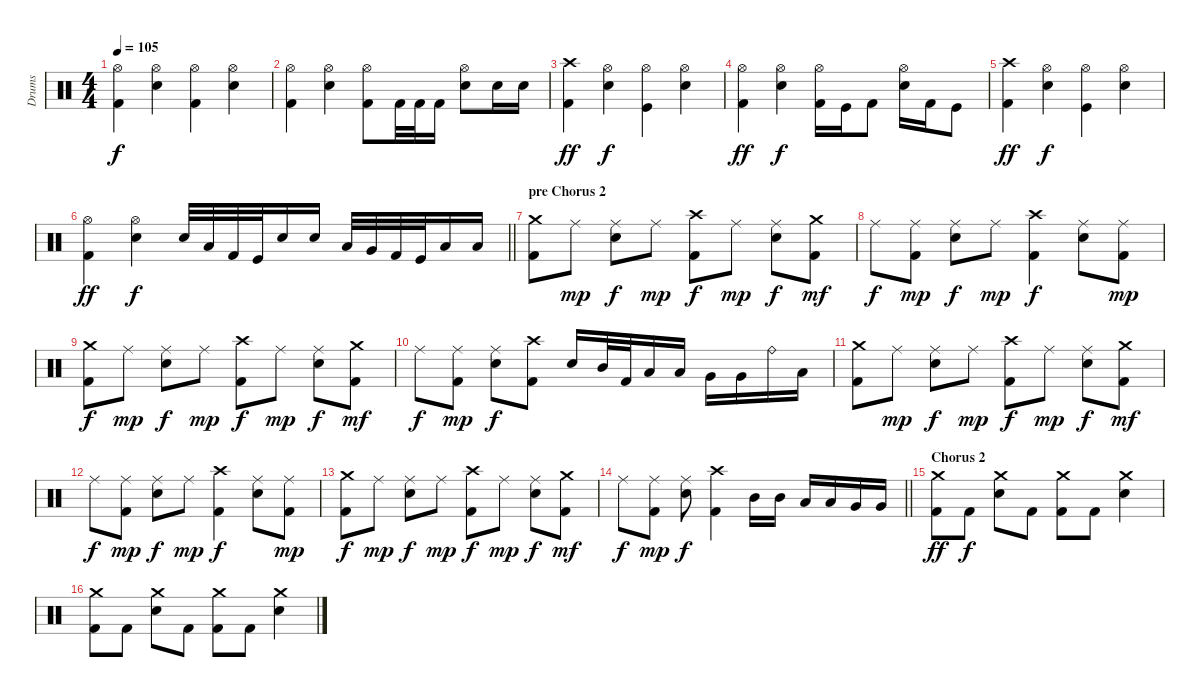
\track ("Drums" "Drums") {instrument percussion}
\staff {score}
\articulation defaults
\ts (4 4)
\tempo 105
\clef neutral
\ks c
("Hi-Hat (open)" "Kick (hit) 2").4{dy f} ("Hi-Hat (open)" "Snare (hit) 2").4 ("Hi-Hat (open)" "Kick (hit) 2").4 ("Hi-Hat (open)" "Snare (hit) 2").4 |
("Hi-Hat (open)" "Kick (hit) 2").4 ("Hi-Hat (open)" "Snare (hit) 2").4 ("Hi-Hat (open)" "Kick (hit) 2").8 "Kick (hit) 2".32 "Kick (hit) 2".32 "Kick (hit) 2".16 ("Hi-Hat (open)" "Snare (hit) 2").8 "Snare (hit) 2".16 "Snare (hit) 2".16 |
("Crash high (hit)" "Kick (hit) 2").4{dy ff} ("Hi-Hat (open)" "Snare (hit) 2").4{dy f} ("Hi-Hat (open)" "Kick (hit)").4 ("Hi-Hat (open)" "Snare (hit) 2").4 |
("Hi-Hat (open)" "Kick (hit) 2").4{dy ff} ("Hi-Hat (open)" "Snare (hit) 2").4{dy f} ("Hi-Hat (open)" "Kick (hit) 2").16 "Kick (hit)".16 "Kick (hit) 2".8 ("Hi-Hat (open)" "Snare (hit) 2").16 "Kick (hit) 2".16 "Kick (hit)".8 |
("Crash high (hit)" "Kick (hit) 2").4{dy ff} ("Hi-Hat (open)" "Snare (hit) 2").4{dy f} ("Hi-Hat (open)" "Kick (hit)").4 ("Hi-Hat (open)" "Snare (hit) 2").4 |
\barLineRight lightlight
("Hi-Hat (open)" "Kick (hit) 2").4{dy ff} ("Hi-Hat (open)" "Snare (hit) 2").4{dy f} "Snare (hit) 2".32 "Low Tom (hit)".32 "Kick (hit) 2".32 "Kick (hit)".32 "Snare (hit) 2".16 "Snare (hit) 2".16 "Low Tom (hit)".32 "Very Low Tom (hit)".32 "Kick (hit) 2".32 "Kick (hit)".32 "Low Floor Tom (hit)".16 "Low Floor Tom (hit)".16 |
\section ("" "pre Chorus 2")
("Crash medium (hit)" "Kick (hit) 2").8 "Ride (middle)".8{dy mp} ("Ride (middle)" "Snare (hit) 2").8{dy f} "Ride (middle)".8{dy mp} ("Crash high (hit)" "Kick (hit) 2").8{dy f} "Ride (middle)".8{dy mp} ("Ride (middle)" "Snare (hit) 2").8{dy f} ("Crash medium (hit)" "Kick (hit) 2").8{dy mf} |
"Ride (middle)".8{dy f} ("Ride (middle)" "Kick (hit) 2").8{dy mp} ("Ride (middle)" "Snare (hit) 2").8{dy f} "Ride (middle)".8{dy mp} ("Crash high (hit)" "Kick (hit) 2").4{dy f} ("Ride (middle)" "Snare (hit) 2").8 ("Ride (middle)" "Kick (hit) 2").8{dy mp} |
("Crash medium (hit)" "Kick (hit) 2").8{dy f} "Ride (middle)".8{dy mp} ("Ride (middle)" "Snare (hit) 2").8{dy f} "Ride (middle)".8{dy mp} ("Crash high (hit)" "Kick (hit) 2").8{dy f} "Ride (middle)".8{dy mp} ("Ride (middle)" "Snare (hit) 2").8{dy f} ("Crash medium (hit)" "Kick (hit) 2").8{dy mf} |
"Ride (middle)".8{dy f} ("Ride (middle)" "Kick (hit) 2").8{dy mp} ("Ride (middle)" "Snare (hit) 2").8{dy f} ("Crash high (hit)" "Kick (hit) 2").8 "Snare (hit) 2".16 "Mid Tom (hit)".32 "Kick (hit) 2".32 "Low Tom (hit)".16 "Low Tom (hit)".16 "Very Low Tom (hit)".16 "Very Low Tom (hit)".16 "Ride (bell)".16 "Low Floor Tom (hit)".16 |
("Crash medium (hit)" "Kick (hit) 2").8 "Ride (middle)".8{dy mp} ("Ride (middle)" "Snare (hit) 2").8{dy f} "Ride (middle)".8{dy mp} ("Crash high (hit)" "Kick (hit) 2").8{dy f} "Ride (middle)".8{dy mp} ("Ride (middle)" "Snare (hit) 2").8{dy f} ("Crash medium (hit)" "Kick (hit) 2").8{dy mf} |
"Ride (middle)".8{dy f} ("Ride (middle)" "Kick (hit) 2").8{dy mp} ("Ride (middle)" "Snare (hit) 2").8{dy f} "Ride (middle)".8{dy mp} ("Crash high (hit)" "Kick (hit) 2").4{dy f} ("Ride (middle)" "Snare (hit) 2").8 ("Ride (middle)" "Kick (hit) 2").8{dy mp} |
("Crash medium (hit)" "Kick (hit) 2").8{dy f} "Ride (middle)".8{dy mp} ("Ride (middle)" "Snare (hit) 2").8{dy f} "Ride (middle)".8{dy mp} ("Crash high (hit)" "Kick (hit) 2").8{dy f} "Ride (middle)".8{dy mp} ("Ride (middle)" "Snare (hit) 2").8{dy f} ("Crash medium (hit)" "Kick (hit) 2").8{dy mf} |
\barLineRight lightlight "Ride (middle)".8{dy f}
("Ride (middle)" "Kick (hit) 2").8{dy mp} ("Ride (middle)" "Snare (hit) 2").8{dy f} ("Crash high (hit)" "Kick (hit) 2").4 "Mid Tom (hit)".16 "Mid Tom (hit)".16 "Low Tom (hit)".16 "Low Tom (hit)".16 "Very Low Tom (hit)".16 "Very Low Tom (hit)".16 |
\section ("" "Chorus 2")
("Crash medium (hit)" "Kick (hit) 2").8{dy ff} "Kick (hit) 2".8{dy f} ("Crash medium (hit)" "Snare (hit) 2").8 "Kick (hit) 2".8 ("Crash medium (hit)" "Kick (hit) 2").8 "Kick (hit) 2".8 ("Crash medium (hit)" "Snare (hit) 2").4 |
("Crash medium (hit)" "Kick (hit) 2").8 "Kick (hit) 2".8 ("Crash medium (hit)" "Snare (hit) 2").8 "Kick (hit) 2".8 ("Crash medium (hit)" "Kick (hit) 2").8 "Kick (hit) 2".8 ("Crash medium (hit)" "Snare (hit) 2").4
